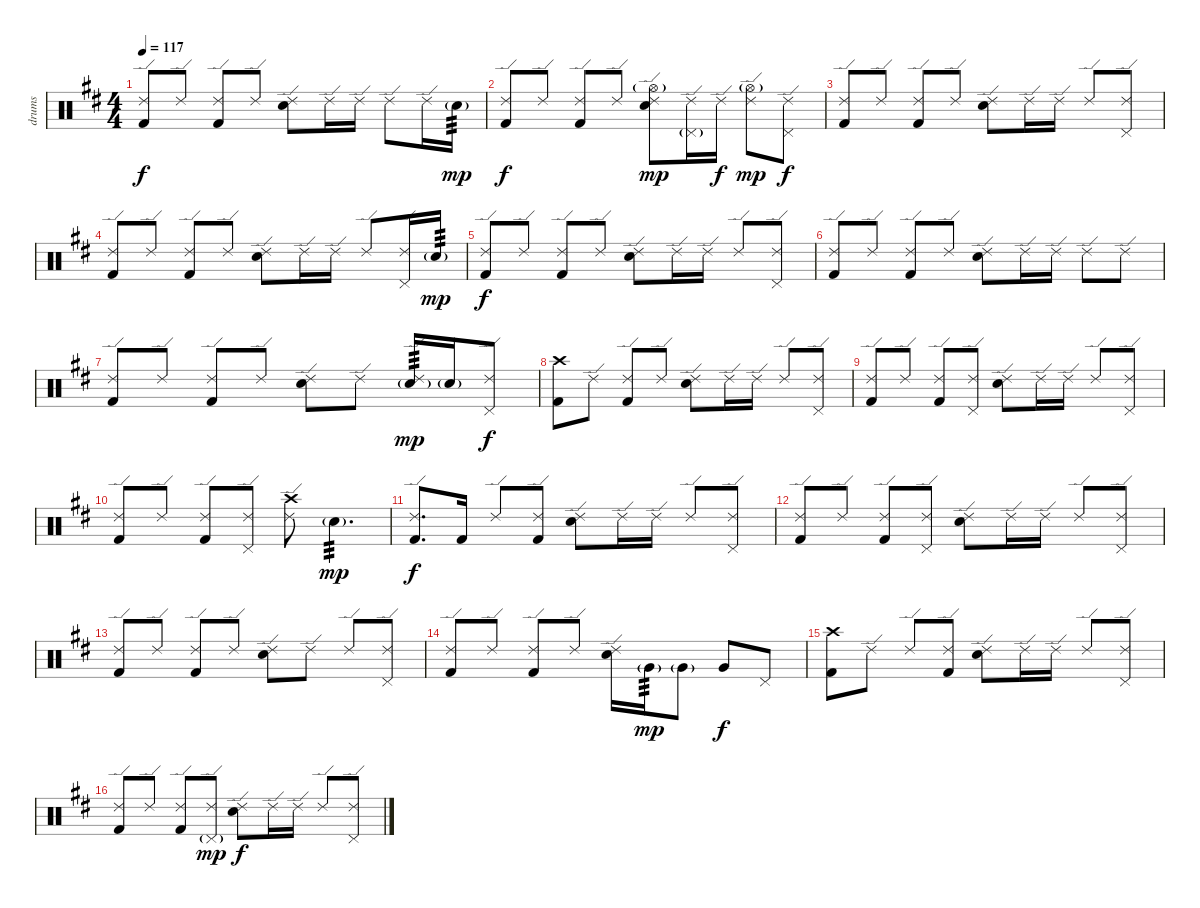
\track ("drums" "drums") {instrument percussion}
\staff {score}
\articulation defaults
\ts (4 4)
\tempo 117
\clef neutral
\ks d
("Ride (edge) 2" "Kick (hit) 2").8{dy f} "Ride (edge) 2".8 ("Ride (edge) 2" "Kick (hit) 2").8 "Ride (edge) 2".8 ("Ride (edge) 2" "Electric Snare (hit)").8 "Ride (edge) 2".16 "Ride (edge) 2".16 "Ride (edge) 2".8 "Ride (edge) 2".16 "Electric Snare (hit)"{g}.16{tp 3 dy mp} |
("Ride (edge) 2" "Kick (hit) 2").8{dy f} "Ride (edge) 2".8 ("Ride (edge) 2" "Kick (hit) 2").8 "Ride (edge) 2".8 ("Ride (edge) 2" "Hi-Hat (open)"{g} "Electric Snare (hit)").8{dy mp} ("Ride (edge) 2" "Pedal Hi-Hat (hit)"{g}).16 "Ride (edge) 2".16{dy f} ("Ride (edge) 2" "Hi-Hat (open)"{g}).8{dy mp} ("Ride (edge) 2" "Pedal Hi-Hat (hit)").8{dy f} |
("Ride (edge) 2" "Kick (hit) 2").8 "Ride (edge) 2".8 ("Ride (edge) 2" "Kick (hit) 2").8 "Ride (edge) 2".8 ("Ride (edge) 2" "Electric Snare (hit)").8 "Ride (edge) 2".16 "Ride (edge) 2".16 "Ride (edge) 2".8 ("Ride (edge) 2" "Pedal Hi-Hat (hit)").8 |
("Ride (edge) 2" "Kick (hit) 2").8 "Ride (edge) 2".8 ("Ride (edge) 2" "Kick (hit) 2").8 "Ride (edge) 2".8 ("Ride (edge) 2" "Electric Snare (hit)").8 "Ride (edge) 2".16 "Ride (edge) 2".16 "Ride (edge) 2".8 ("Ride (edge) 2" "Pedal Hi-Hat (hit)").16 "Electric Snare (hit)"{g}.16{tp 3 dy mp} |
("Ride (edge) 2" "Kick (hit) 2").8{dy f} "Ride (edge) 2".8 ("Ride (edge) 2" "Kick (hit) 2").8 "Ride (edge) 2".8 ("Ride (edge) 2" "Electric Snare (hit)").8 "Ride (edge) 2".16 "Ride (edge) 2".16 "Ride (edge) 2".8 ("Ride (edge) 2" "Pedal Hi-Hat (hit)").8 |
("Ride (edge) 2" "Kick (hit) 2").8 "Ride (edge) 2".8 ("Ride (edge) 2" "Kick (hit) 2").8 "Ride (edge) 2".8 ("Ride (edge) 2" "Electric Snare (hit)").8 "Ride (edge) 2".16 "Ride (edge) 2".16 "Ride (edge) 2".8 "Ride (edge) 2".8 |
("Ride (edge) 2" "Kick (hit) 2").8 "Ride (edge) 2".8 ("Ride (edge) 2" "Kick (hit) 2").8 "Ride (edge) 2".8 ("Ride (edge) 2" "Electric Snare (hit)").8 "Ride (edge) 2".8 ("Ride (edge) 2" "Electric Snare (hit)"{g}).16{tp 3 dy mp} "Electric Snare (hit)"{g}.16 ("Ride (edge) 2" "Pedal Hi-Hat (hit)").8{dy f} |
("Crash high (hit)" "Kick (hit) 2").8 "Ride (edge) 2".8 ("Ride (edge) 2" "Kick (hit) 2").8 "Ride (edge) 2".8 ("Ride (edge) 2" "Electric Snare (hit)").8 "Ride (edge) 2".16 "Ride (edge) 2".16 "Ride (edge) 2".8 ("Ride (edge) 2" "Pedal Hi-Hat (hit)").8 |
("Ride (edge) 2" "Kick (hit) 2").8 "Ride (edge) 2".8 ("Ride (edge) 2" "Kick (hit) 2").8 ("Ride (edge) 2" "Pedal Hi-Hat (hit)").8 ("Ride (edge) 2" "Electric Snare (hit)").8 "Ride (edge) 2".16 "Ride (edge) 2".16 "Ride (edge) 2".8 ("Ride (edge) 2" "Pedal Hi-Hat (hit)").8 |
("Ride (edge) 2" "Kick (hit) 2").8 "Ride (edge) 2".8 ("Ride (edge) 2" "Kick (hit) 2").8 ("Ride (edge) 2" "Pedal Hi-Hat (hit)").8 ("Ride (edge) 2" "Crash high (hit)").8 "Electric Snare (hit)"{g}.4{d tp 3 dy mp} |
("Ride (edge) 2" "Kick (hit) 2").8{d dy f} "Kick (hit) 2".16 "Ride (edge) 2".8 ("Ride (edge) 2" "Kick (hit) 2").8 ("Ride (edge) 2" "Electric Snare (hit)").8 "Ride (edge) 2".16 "Ride (edge) 2".16 "Ride (edge) 2".8 ("Ride (edge) 2" "Pedal Hi-Hat (hit)").8 |
("Ride (edge) 2" "Kick (hit) 2").8 "Ride (edge) 2".8 ("Ride (edge) 2" "Kick (hit) 2").8 ("Ride (edge) 2" "Pedal Hi-Hat (hit)").8 ("Ride (edge) 2" "Electric Snare (hit)").8 "Ride (edge) 2".16 "Ride (edge) 2".16 "Ride (edge) 2".8 ("Ride (edge) 2" "Pedal Hi-Hat (hit)").8 |
("Ride (edge) 2" "Kick (hit) 2").8 "Ride (edge) 2".8 ("Ride (edge) 2" "Kick (hit) 2").8 "Ride (edge) 2".8 ("Ride (edge) 2" "Electric Snare (hit)").8 "Ride (edge) 2".8 "Ride (edge) 2".8 ("Ride (edge) 2" "Pedal Hi-Hat (hit)").8 |
("Ride (edge) 2" "Kick (hit) 2").8 "Ride (edge) 2".8 ("Ride (edge) 2" "Kick (hit) 2").8 "Ride (edge) 2".8 ("Ride (edge) 2" "Electric Snare (hit)").16 "Very Low Tom (hit)"{g}.16{tp 3 dy mp} "Very Low Tom (hit)"{g}.8 "Very Low Tom (hit)".8{dy f} "Pedal Hi-Hat (hit)".8 |
("Crash high (hit)" "Kick (hit) 2").8 "Ride (edge) 2".8 "Ride (edge) 2".8 ("Ride (edge) 2" "Kick (hit) 2").8 ("Ride (edge) 2" "Electric Snare (hit)").8 "Ride (edge) 2".16 "Ride (edge) 2".16 "Ride (edge) 2".8 ("Ride (edge) 2" "Pedal Hi-Hat (hit)").8 |
("Ride (edge) 2" "Kick (hit) 2").8 "Ride (edge) 2".8 ("Ride (edge) 2" "Kick (hit) 2").8 ("Ride (edge) 2" "Pedal Hi-Hat (hit)"{g}).8{dy mp} ("Ride (edge) 2" "Electric Snare (hit)").8{dy f} "Ride (edge) 2".16 "Ride (edge) 2".16 "Ride (edge) 2".8 ("Ride (edge) 2" "Pedal Hi-Hat (hit)").8
